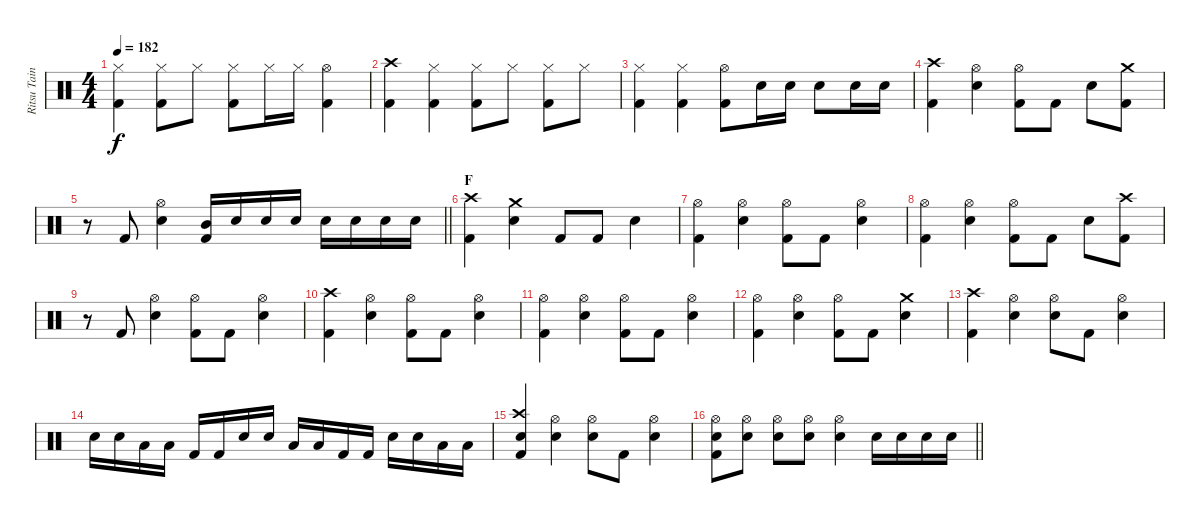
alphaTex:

\track ("Ritsu Tainaka" "Ritsu Tain") {instrument percussion}
\staff {score}
\articulation defaults
\ts (4 4)
\tempo 182
\clef neutral
\ks c
("Hi-Hat (closed)" "Kick (hit) 2").4{dy f} ("Hi-Hat (closed)" "Kick (hit) 2").8 "Hi-Hat (closed)".8 ("Hi-Hat (closed)" "Kick (hit) 2").8 "Hi-Hat (closed)".16 "Hi-Hat (closed)".16 ("Hi-Hat (open)" "Kick (hit) 2").4 |
("Crash high (hit)" "Kick (hit) 2").4 ("Hi-Hat (closed)" "Kick (hit) 2").4 ("Hi-Hat (closed)" "Kick (hit) 2").8 "Hi-Hat (closed)".8 ("Hi-Hat (closed)" "Kick (hit) 2").8 "Hi-Hat (closed)".8 |
("Hi-Hat (closed)" "Kick (hit) 2").4 ("Hi-Hat (closed)" "Kick (hit) 2").4 ("Hi-Hat (open)" "Kick (hit) 2").8 "Electric Snare (hit)".16 "Electric Snare (hit)".16 "Electric Snare (hit)".8 "Electric Snare (hit)".16 "Electric Snare (hit)".16 |
("Crash high (hit)" "Kick (hit) 2").4 ("Hi-Hat (open)" "Electric Snare (hit)").4 ("Hi-Hat (open)" "Kick (hit) 2").8 "Kick (hit) 2".8 "Electric Snare (hit)".8 ("Crash medium (hit)" "Kick (hit) 2").8 |
\barLineRight lightlight
r.8 "Kick (hit) 2".8 ("Hi-Hat (open)" "Electric Snare (hit)").4 ("Mid Tom (hit)" "Kick (hit) 2").16 "Electric Snare (hit)".16 "Electric Snare (hit)".16 "Electric Snare (hit)".16 "Electric Snare (hit)".16 "Electric Snare (hit)".16 "Electric Snare (hit)".16 "Electric Snare (hit)".16 |
\section ("" "F")
("Crash high (hit)" "Kick (hit) 2").4 ("Crash medium (hit)" "Electric Snare (hit)").4 "Kick (hit) 2".8 "Kick (hit) 2".8 "Electric Snare (hit)".4 |
("Hi-Hat (open)" "Kick (hit) 2").4 ("Hi-Hat (open)" "Electric Snare (hit)").4 ("Hi-Hat (open)" "Kick (hit) 2").8 "Kick (hit) 2".8 ("Hi-Hat (open)" "Electric Snare (hit)").4 |
("Hi-Hat (open)" "Kick (hit) 2").4 ("Hi-Hat (open)" "Electric Snare (hit)").4 ("Hi-Hat (open)" "Kick (hit) 2").8 "Kick (hit) 2".8 "Electric Snare (hit)".8 ("Crash high (hit)" "Kick (hit) 2").8 |
r.8 "Kick (hit) 2".8 ("Hi-Hat (open)" "Electric Snare (hit)").4 ("Hi-Hat (open)" "Kick (hit) 2").8 "Kick (hit) 2".8 ("Hi-Hat (open)" "Electric Snare (hit)").4 |
("Crash high (hit)" "Kick (hit) 2").4 ("Hi-Hat (open)" "Electric Snare (hit)").4 ("Hi-Hat (open)" "Kick (hit) 2").8 "Kick (hit) 2".8 ("Hi-Hat (open)" "Electric Snare (hit)").4 |
("Hi-Hat (open)" "Kick (hit) 2").4 ("Hi-Hat (open)" "Electric Snare (hit)").4 ("Hi-Hat (open)" "Kick (hit) 2").8 "Kick (hit) 2".8 ("Hi-Hat (open)" "Electric Snare (hit)").4 |
("Hi-Hat (open)" "Kick (hit) 2").4 ("Hi-Hat (open)" "Electric Snare (hit)").4 ("Hi-Hat (open)" "Kick (hit) 2").8 "Kick (hit) 2".8 ("Crash medium (hit)" "Electric Snare (hit)").4 |
("Crash high (hit)" "Kick (hit) 2").4 ("Hi-Hat (open)" "Electric Snare (hit)").4 ("Hi-Hat (open)" "Electric Snare (hit)").8 "Kick (hit) 2".8 ("Hi-Hat (open)" "Electric Snare (hit)").4 |
"Electric Snare (hit)".16 "Electric Snare (hit)".16 "Low Floor Tom (hit)".16 "Low Floor Tom (hit)".16 "Kick (hit) 2".16 "Kick (hit) 2".16 "Electric Snare (hit)".16 "Electric Snare (hit)".16 "Low Floor Tom (hit)".16 "Low Floor Tom (hit)".16 "Kick (hit) 2".16 "Kick (hit) 2".16 "Electric Snare (hit)".16 "Electric Snare (hit)".16 "Low Floor Tom (hit)".16 "Low Floor Tom (hit)".16 |
("Crash high (hit)" "Electric Snare (hit)" "Kick (hit) 2").4 ("Hi-Hat (open)" "Electric Snare (hit)").4 ("Hi-Hat (open)" "Electric Snare (hit)").8 "Kick (hit) 2".8 ("Hi-Hat (open)" "Electric Snare (hit)").4 |
\barLineRight lightlight
("Hi-Hat (open)" "Electric Snare (hit)" "Kick (hit) 2").8 ("Hi-Hat (open)" "Electric Snare (hit)").8 ("Hi-Hat (open)" "Electric Snare (hit)").8 ("Hi-Hat (open)" "Electric Snare (hit)").8 ("Hi-Hat (open)" "Electric Snare (hit)").4 "Electric Snare (hit)".16 "Electric Snare (hit)".16 "Electric Snare (hit)".16 "Electric Snare (hit)".16
